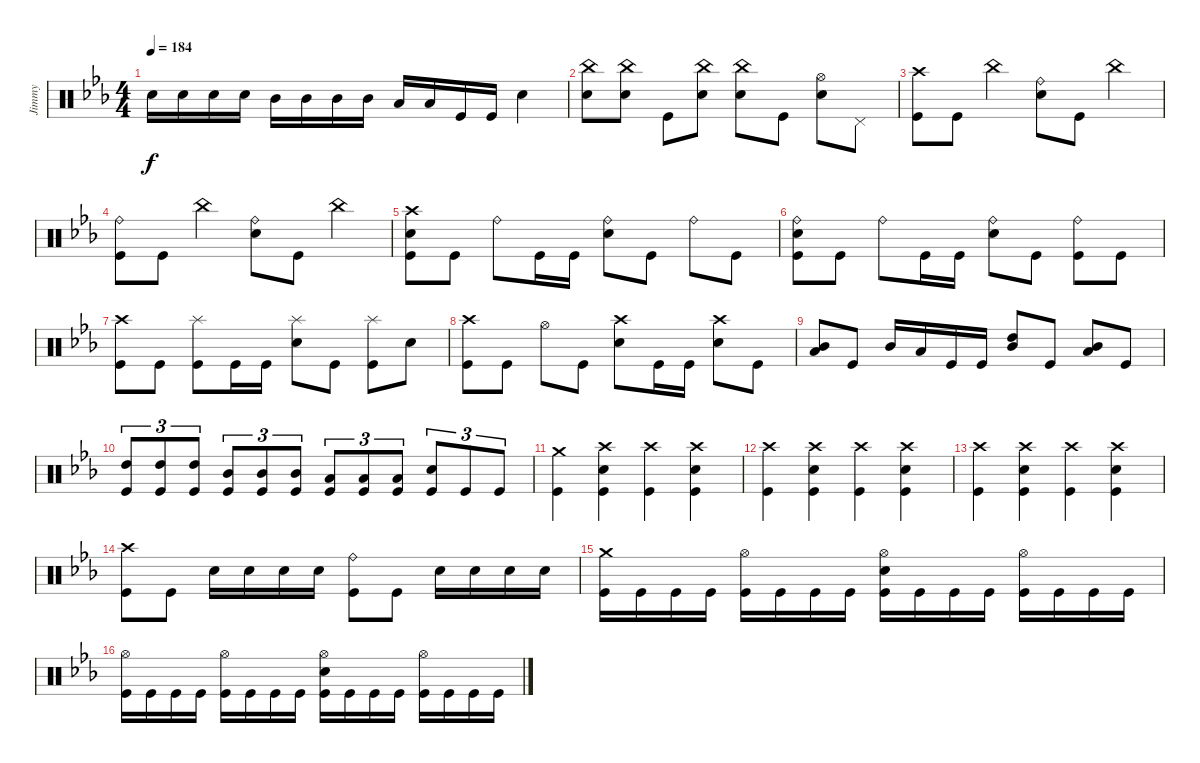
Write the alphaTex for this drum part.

\track ("Jimmy" "Jimmy") {instrument percussion}
\staff {score}
\articulation defaults
\ts (4 4)
\tempo 184
\clef neutral
\ks cminor "Snare (hit) 2".16{dy f} "Snare (hit) 2".16 "Snare (hit) 2".16 "Snare (hit) 2".16 "Mid Tom (hit)".16 "Mid Tom (hit)".16 "Mid Tom (hit)".16 "Mid Tom (hit)".16 "Low Tom (hit)".16 "Low Tom (hit)".16 "Kick (hit)".16 "Kick (hit)".16 "Snare (hit) 2".4
|
("Snare (hit) 2" "China (hit)").8 ("Snare (hit) 2" "China (hit)").8 "Kick (hit)".8 ("Snare (hit) 2" "China (hit)").8 ("Snare (hit) 2" "China (hit)").8 "Kick (hit)".8 ("Snare (hit) 2" "Hi-Hat (open)").8 "Pedal Hi-Hat (hit)".8 |
("Kick (hit)" "Crash high (hit)").8 "Kick (hit)".8 "China (hit)".4 ("Snare (hit) 2" "Ride (bell)").8 "Kick (hit)".8 "China (hit)".4 |
("Kick (hit)" "Ride (bell)").8 "Kick (hit)".8 "China (hit)".4 ("Snare (hit) 2" "Ride (bell)").8 "Kick (hit)".8 "China (hit)".4 |
("Crash high (hit)" "Kick (hit)" "Snare (hit) 2").8 "Kick (hit)".8 "Ride (bell)".8 "Kick (hit)".16 "Kick (hit)".16 ("Snare (hit) 2" "Ride (bell)").8 "Kick (hit)".8 "Ride (bell)".8 "Kick (hit)".8 |
("Kick (hit)" "Ride (bell)" "Snare (hit) 2").8 "Kick (hit)".8 "Ride (bell)".8 "Kick (hit)".16 "Kick (hit)".16 ("Snare (hit) 2" "Ride (bell)").8 "Kick (hit)".8 ("Kick (hit)" "Ride (bell)").8 "Kick (hit)".8 |
("Crash high (hit)" "Kick (hit)").8 "Kick (hit)".8 ("Kick (hit)" "Splash (hit)").8 "Kick (hit)".16 "Kick (hit)".16 ("Snare (hit) 2" "Splash (hit)").8 "Kick (hit)".8 ("Kick (hit)" "Splash (hit)").8 "Snare (hit) 2".8 |
("Kick (hit)" "Crash high (hit)").8 "Kick (hit)".8 "Hi-Hat (open)".8 "Kick (hit)".8 ("Snare (hit) 2" "Crash high (hit)").8 "Kick (hit)".16 "Kick (hit)".16 ("Snare (hit) 2" "Crash high (hit)").8 "Kick (hit)".8 |
("Mid Tom (hit)" "Low Tom (hit)").8 "Kick (hit)".8 "Mid Tom (hit)".16 "Low Tom (hit)".16 "Kick (hit)".16 "Kick (hit)".16 ("High Tom (hit)" "Mid Tom (hit)").8 "Kick (hit)".8 ("Mid Tom (hit)" "Low Tom (hit)").8 "Kick (hit)".8 |
("High Tom (hit)" "Kick (hit)").8{tu (3 2)} ("High Tom (hit)" "Kick (hit)").8{tu (3 2)} ("High Tom (hit)" "Kick (hit)").8{tu (3 2)} ("Mid Tom (hit)" "Kick (hit)").8{tu (3 2)} ("Mid Tom (hit)" "Kick (hit)").8{tu (3 2)} ("Mid Tom (hit)" "Kick (hit)").8{tu (3 2)} ("Low Tom (hit)" "Kick (hit)").8{tu (3 2)} ("Low Tom (hit)" "Kick (hit)").8{tu (3 2)} ("Low Tom (hit)" "Kick (hit)").8{tu (3 2)} ("Snare (hit) 2" "Kick (hit)").8{tu (3 2)} "Kick (hit)".8{tu (3 2)} "Kick (hit)".8{tu (3 2)} |
("Kick (hit)" "Crash medium (hit)").4 ("Snare (hit) 2" "Crash high (hit)" "Kick (hit)").4 ("Kick (hit)" "Crash high (hit)").4 ("Kick (hit)" "Snare (hit) 2" "Crash high (hit)").4 |
("Kick (hit)" "Crash high (hit)").4 ("Snare (hit) 2" "Kick (hit)" "Crash high (hit)").4 ("Kick (hit)" "Crash high (hit)").4 ("Snare (hit) 2" "Kick (hit)" "Crash high (hit)").4 |
("Kick (hit)" "Crash high (hit)").4 ("Snare (hit) 2" "Kick (hit)" "Crash high (hit)").4 ("Kick (hit)" "Crash high (hit)").4 ("Kick (hit)" "Snare (hit) 2" "Crash high (hit)").4 |
("Crash high (hit)" "Kick (hit)").8 "Kick (hit)".8 "Snare (hit) 2".16 "Snare (hit) 2".16 "Snare (hit) 2".16 "Snare (hit) 2".16 ("Kick (hit)" "Ride (bell)").8 "Kick (hit)".8 "Snare (hit) 2".16 "Snare (hit) 2".16 "Snare (hit) 2".16 "Snare (hit) 2".16 |
("Kick (hit)" "Crash medium (hit)").16 "Kick (hit)".16 "Kick (hit)".16 "Kick (hit)".16 ("Kick (hit)" "Hi-Hat (open)").16 "Kick (hit)".16 "Kick (hit)".16 "Kick (hit)".16 ("Kick (hit)" "Hi-Hat (open)" "Snare (hit) 2").16 "Kick (hit)".16 "Kick (hit)".16 "Kick (hit)".16 ("Kick (hit)" "Hi-Hat (open)").16 "Kick (hit)".16 "Kick (hit)".16 "Kick (hit)".16 |
("Kick (hit)" "Hi-Hat (open)").16 "Kick (hit)".16 "Kick (hit)".16 "Kick (hit)".16 ("Kick (hit)" "Hi-Hat (open)").16 "Kick (hit)".16 "Kick (hit)".16 "Kick (hit)".16 ("Kick (hit)" "Snare (hit) 2" "Hi-Hat (open)").16 "Kick (hit)".16 "Kick (hit)".16 "Kick (hit)".16 ("Kick (hit)" "Hi-Hat (open)").16 "Kick (hit)".16 "Kick (hit)".16 "Kick (hit)".16
